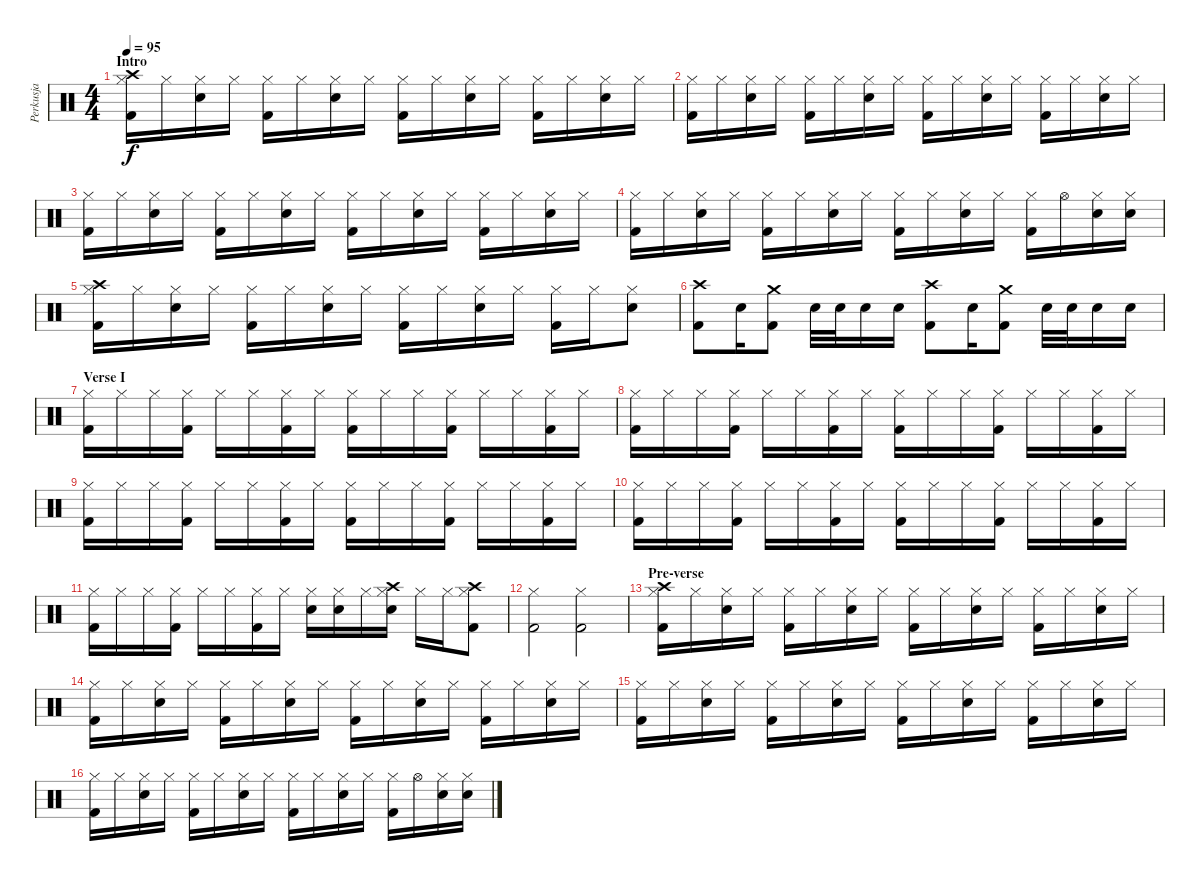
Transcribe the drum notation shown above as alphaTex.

\track ("Perkusja" "Perkusja") {instrument percussion}
\staff {score}
\articulation defaults
\ts (4 4)
\section ("" "Intro")
\tempo 95
\clef neutral
\ks c
("Hi-Hat (closed)" "Kick (hit) 2" "Crash high (hit)").16{dy f} "Hi-Hat (closed)".16 ("Hi-Hat (closed)" "Snare (hit) 2").16 "Hi-Hat (closed)".16 ("Hi-Hat (closed)" "Kick (hit) 2").16 "Hi-Hat (closed)".16 ("Hi-Hat (closed)" "Snare (hit) 2").16 "Hi-Hat (closed)".16 ("Hi-Hat (closed)" "Kick (hit) 2").16 "Hi-Hat (closed)".16 ("Hi-Hat (closed)" "Snare (hit) 2").16 "Hi-Hat (closed)".16 ("Hi-Hat (closed)" "Kick (hit) 2").16 "Hi-Hat (closed)".16 ("Hi-Hat (closed)" "Snare (hit) 2").16 "Hi-Hat (closed)".16 |
("Hi-Hat (closed)" "Kick (hit) 2").16 "Hi-Hat (closed)".16 ("Hi-Hat (closed)" "Snare (hit) 2").16 "Hi-Hat (closed)".16 ("Hi-Hat (closed)" "Kick (hit) 2").16 "Hi-Hat (closed)".16 ("Hi-Hat (closed)" "Snare (hit) 2").16 "Hi-Hat (closed)".16 ("Hi-Hat (closed)" "Kick (hit) 2").16 "Hi-Hat (closed)".16 ("Hi-Hat (closed)" "Snare (hit) 2").16 "Hi-Hat (closed)".16 ("Hi-Hat (closed)" "Kick (hit) 2").16 "Hi-Hat (closed)".16 ("Hi-Hat (closed)" "Snare (hit) 2").16 "Hi-Hat (closed)".16 |
("Hi-Hat (closed)" "Kick (hit) 2").16 "Hi-Hat (closed)".16 ("Hi-Hat (closed)" "Snare (hit) 2").16 "Hi-Hat (closed)".16 ("Hi-Hat (closed)" "Kick (hit) 2").16 "Hi-Hat (closed)".16 ("Hi-Hat (closed)" "Snare (hit) 2").16 "Hi-Hat (closed)".16 ("Hi-Hat (closed)" "Kick (hit) 2").16 "Hi-Hat (closed)".16 ("Hi-Hat (closed)" "Snare (hit) 2").16 "Hi-Hat (closed)".16 ("Hi-Hat (closed)" "Kick (hit) 2").16 "Hi-Hat (closed)".16 ("Hi-Hat (closed)" "Snare (hit) 2").16 "Hi-Hat (closed)".16 |
("Hi-Hat (closed)" "Kick (hit) 2").16 "Hi-Hat (closed)".16 ("Hi-Hat (closed)" "Snare (hit) 2").16 "Hi-Hat (closed)".16 ("Hi-Hat (closed)" "Kick (hit) 2").16 "Hi-Hat (closed)".16 ("Hi-Hat (closed)" "Snare (hit) 2").16 "Hi-Hat (closed)".16 ("Hi-Hat (closed)" "Kick (hit) 2").16 "Hi-Hat (closed)".16 ("Hi-Hat (closed)" "Snare (hit) 2").16 "Hi-Hat (closed)".16 ("Hi-Hat (closed)" "Kick (hit) 2").16 "Hi-Hat (open)".16 ("Hi-Hat (closed)" "Snare (hit) 2").16 ("Hi-Hat (closed)" "Snare (hit) 2").16 |
("Hi-Hat (closed)" "Kick (hit) 2" "Crash high (hit)").16 "Hi-Hat (closed)".16 ("Hi-Hat (closed)" "Snare (hit) 2").16 "Hi-Hat (closed)".16 ("Hi-Hat (closed)" "Kick (hit) 2").16 "Hi-Hat (closed)".16 ("Hi-Hat (closed)" "Snare (hit) 2").16 "Hi-Hat (closed)".16 ("Hi-Hat (closed)" "Kick (hit) 2").16 "Hi-Hat (closed)".16 ("Hi-Hat (closed)" "Snare (hit) 2").16 "Hi-Hat (closed)".16 ("Hi-Hat (closed)" "Kick (hit) 2").16 "Hi-Hat (closed)".16 ("Hi-Hat (closed)" "Snare (hit) 2").8 |
("Kick (hit) 2" "Crash high (hit)").8 "Snare (hit) 2".16 ("Kick (hit) 2" "Crash medium (hit)").8 "Snare (hit) 2".32 "Snare (hit) 2".32 "Snare (hit) 2".16 "Snare (hit) 2".16 ("Kick (hit) 2" "Crash high (hit)").8 "Snare (hit) 2".16 ("Kick (hit) 2" "Crash medium (hit)").8 "Snare (hit) 2".32 "Snare (hit) 2".32 "Snare (hit) 2".16 "Snare (hit) 2".16 |
\section ("" "Verse I")
("Hi-Hat (closed)" "Kick (hit) 2").16 "Hi-Hat (closed)".16 "Hi-Hat (closed)".16 ("Hi-Hat (closed)" "Kick (hit) 2").16 "Hi-Hat (closed)".16 "Hi-Hat (closed)".16 ("Hi-Hat (closed)" "Kick (hit) 2").16 "Hi-Hat (closed)".16 ("Hi-Hat (closed)" "Kick (hit) 2").16 "Hi-Hat (closed)".16 "Hi-Hat (closed)".16 ("Hi-Hat (closed)" "Kick (hit) 2").16 "Hi-Hat (closed)".16 "Hi-Hat (closed)".16 ("Hi-Hat (closed)" "Kick (hit) 2").16 "Hi-Hat (closed)".16 |
("Hi-Hat (closed)" "Kick (hit) 2").16 "Hi-Hat (closed)".16 "Hi-Hat (closed)".16 ("Hi-Hat (closed)" "Kick (hit) 2").16 "Hi-Hat (closed)".16 "Hi-Hat (closed)".16 ("Hi-Hat (closed)" "Kick (hit) 2").16 "Hi-Hat (closed)".16 ("Hi-Hat (closed)" "Kick (hit) 2").16 "Hi-Hat (closed)".16 "Hi-Hat (closed)".16 ("Hi-Hat (closed)" "Kick (hit) 2").16 "Hi-Hat (closed)".16 "Hi-Hat (closed)".16 ("Hi-Hat (closed)" "Kick (hit) 2").16 "Hi-Hat (closed)".16 |
("Hi-Hat (closed)" "Kick (hit) 2").16 "Hi-Hat (closed)".16 "Hi-Hat (closed)".16 ("Hi-Hat (closed)" "Kick (hit) 2").16 "Hi-Hat (closed)".16 "Hi-Hat (closed)".16 ("Hi-Hat (closed)" "Kick (hit) 2").16 "Hi-Hat (closed)".16 ("Hi-Hat (closed)" "Kick (hit) 2").16 "Hi-Hat (closed)".16 "Hi-Hat (closed)".16 ("Hi-Hat (closed)" "Kick (hit) 2").16 "Hi-Hat (closed)".16 "Hi-Hat (closed)".16 ("Hi-Hat (closed)" "Kick (hit) 2").16 "Hi-Hat (closed)".16 |
("Hi-Hat (closed)" "Kick (hit) 2").16 "Hi-Hat (closed)".16 "Hi-Hat (closed)".16 ("Hi-Hat (closed)" "Kick (hit) 2").16 "Hi-Hat (closed)".16 "Hi-Hat (closed)".16 ("Hi-Hat (closed)" "Kick (hit) 2").16 "Hi-Hat (closed)".16 ("Hi-Hat (closed)" "Kick (hit) 2").16 "Hi-Hat (closed)".16 "Hi-Hat (closed)".16 ("Hi-Hat (closed)" "Kick (hit) 2").16 "Hi-Hat (closed)".16 "Hi-Hat (closed)".16 ("Hi-Hat (closed)" "Kick (hit) 2").16 "Hi-Hat (closed)".16 |
("Hi-Hat (closed)" "Kick (hit) 2").16 "Hi-Hat (closed)".16 "Hi-Hat (closed)".16 ("Hi-Hat (closed)" "Kick (hit) 2").16 "Hi-Hat (closed)".16 "Hi-Hat (closed)".16 ("Hi-Hat (closed)" "Kick (hit) 2").16 "Hi-Hat (closed)".16 ("Hi-Hat (closed)" "Snare (hit) 2").16 ("Hi-Hat (closed)" "Snare (hit) 2").16 "Hi-Hat (closed)".16 ("Hi-Hat (closed)" "Snare (hit) 2" "Crash high (hit)").16 "Hi-Hat (closed)".16 "Hi-Hat (closed)".16 ("Hi-Hat (closed)" "Kick (hit) 2" "Crash high (hit)").8 |
("Hi-Hat (closed)" "Kick (hit) 2").2 ("Hi-Hat (closed)" "Kick (hit) 2").2 |
\section ("" "Pre-verse")
("Hi-Hat (closed)" "Kick (hit) 2" "Crash high (hit)").16 "Hi-Hat (closed)".16 ("Hi-Hat (closed)" "Snare (hit) 2").16 "Hi-Hat (closed)".16 ("Hi-Hat (closed)" "Kick (hit) 2").16 "Hi-Hat (closed)".16 ("Hi-Hat (closed)" "Snare (hit) 2").16 "Hi-Hat (closed)".16 ("Hi-Hat (closed)" "Kick (hit) 2").16 "Hi-Hat (closed)".16 ("Hi-Hat (closed)" "Snare (hit) 2").16 "Hi-Hat (closed)".16 ("Hi-Hat (closed)" "Kick (hit) 2").16 "Hi-Hat (closed)".16 ("Hi-Hat (closed)" "Snare (hit) 2").16 "Hi-Hat (closed)".16 |
("Hi-Hat (closed)" "Kick (hit) 2").16 "Hi-Hat (closed)".16 ("Hi-Hat (closed)" "Snare (hit) 2").16 "Hi-Hat (closed)".16 ("Hi-Hat (closed)" "Kick (hit) 2").16 "Hi-Hat (closed)".16 ("Hi-Hat (closed)" "Snare (hit) 2").16 "Hi-Hat (closed)".16 ("Hi-Hat (closed)" "Kick (hit) 2").16 "Hi-Hat (closed)".16 ("Hi-Hat (closed)" "Snare (hit) 2").16 "Hi-Hat (closed)".16 ("Hi-Hat (closed)" "Kick (hit) 2").16 "Hi-Hat (closed)".16 ("Hi-Hat (closed)" "Snare (hit) 2").16 "Hi-Hat (closed)".16 |
("Hi-Hat (closed)" "Kick (hit) 2").16 "Hi-Hat (closed)".16 ("Hi-Hat (closed)" "Snare (hit) 2").16 "Hi-Hat (closed)".16 ("Hi-Hat (closed)" "Kick (hit) 2").16 "Hi-Hat (closed)".16 ("Hi-Hat (closed)" "Snare (hit) 2").16 "Hi-Hat (closed)".16 ("Hi-Hat (closed)" "Kick (hit) 2").16 "Hi-Hat (closed)".16 ("Hi-Hat (closed)" "Snare (hit) 2").16 "Hi-Hat (closed)".16 ("Hi-Hat (closed)" "Kick (hit) 2").16 "Hi-Hat (closed)".16 ("Hi-Hat (closed)" "Snare (hit) 2").16 "Hi-Hat (closed)".16 |
("Hi-Hat (closed)" "Kick (hit) 2").16 "Hi-Hat (closed)".16 ("Hi-Hat (closed)" "Snare (hit) 2").16 "Hi-Hat (closed)".16 ("Hi-Hat (closed)" "Kick (hit) 2").16 "Hi-Hat (closed)".16 ("Hi-Hat (closed)" "Snare (hit) 2").16 "Hi-Hat (closed)".16 ("Hi-Hat (closed)" "Kick (hit) 2").16 "Hi-Hat (closed)".16 ("Hi-Hat (closed)" "Snare (hit) 2").16 "Hi-Hat (closed)".16 ("Hi-Hat (closed)" "Kick (hit) 2").16 "Hi-Hat (open)".16 ("Hi-Hat (closed)" "Snare (hit) 2").16 ("Hi-Hat (closed)" "Snare (hit) 2").16
